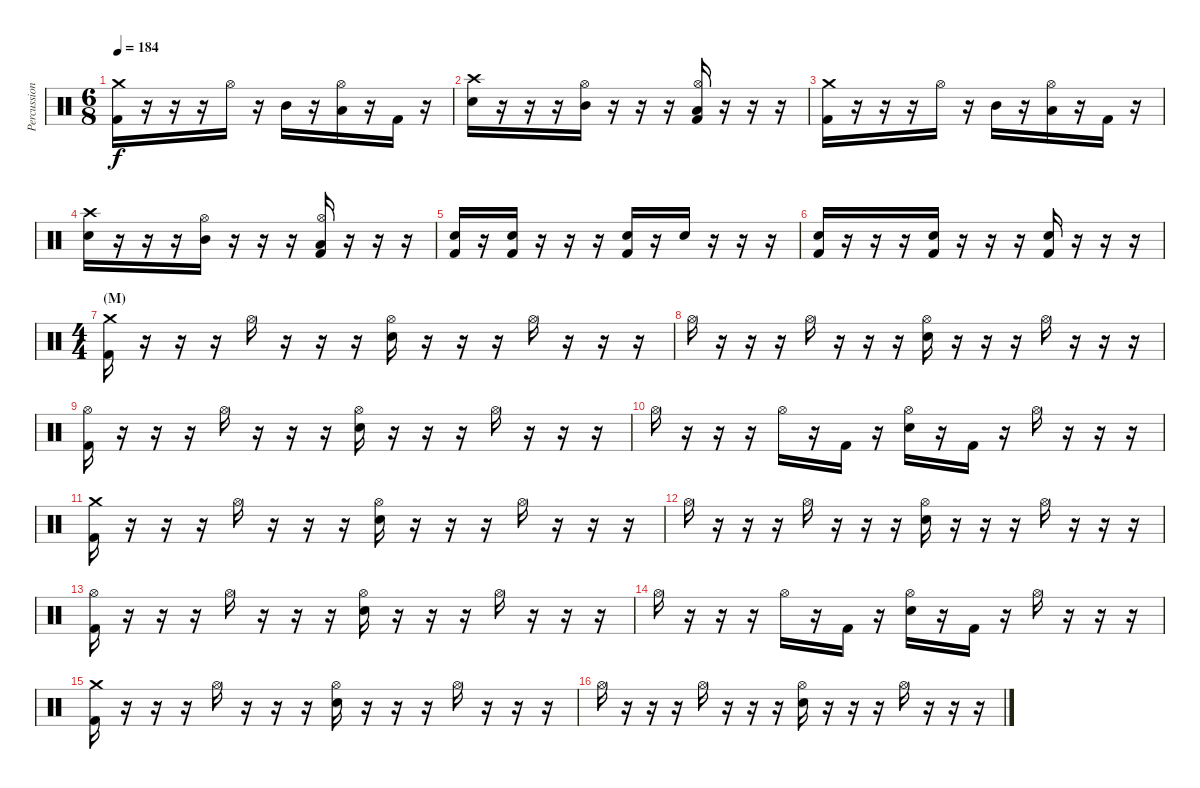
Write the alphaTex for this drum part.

\track ("Percussion" "Percussion") {instrument percussion}
\staff {score}
\articulation defaults
\ts (6 8)
\tempo 184
\clef neutral
\ks c
("Crash medium (hit)" "Kick (hit) 2").16{dy f} r.16 r.16 r.16 "Hi-Hat (open)".16 r.16 "Mid Tom (hit)".16 r.16 ("Hi-Hat (open)" "Low Tom (hit)").16 r.16 "Kick (hit) 2".16 r.16 |
("Crash high (hit)" "Electric Snare (hit)").16 r.16 r.16 r.16 ("Hi-Hat (open)" "Mid Tom (hit)").16 r.16 r.16 r.16 ("Hi-Hat (open)" "Low Tom (hit)" "Kick (hit) 2").16 r.16 r.16 r.16 |
("Crash medium (hit)" "Kick (hit) 2").16 r.16 r.16 r.16 "Hi-Hat (open)".16 r.16 "Mid Tom (hit)".16 r.16 ("Hi-Hat (open)" "Low Tom (hit)").16 r.16 "Kick (hit) 2".16 r.16 |
("Crash high (hit)" "Electric Snare (hit)").16 r.16 r.16 r.16 ("Hi-Hat (open)" "Mid Tom (hit)").16 r.16 r.16 r.16 ("Hi-Hat (open)" "Low Tom (hit)" "Kick (hit) 2").16 r.16 r.16 r.16 |
("Electric Snare (hit)" "Kick (hit) 2").16 r.16 ("Electric Snare (hit)" "Kick (hit) 2").16 r.16 r.16 r.16 ("Electric Snare (hit)" "Kick (hit) 2").16 r.16 "Electric Snare (hit)".16 r.16 r.16 r.16 |
("Electric Snare (hit)" "Kick (hit) 2").16 r.16 r.16 r.16 ("Electric Snare (hit)" "Kick (hit) 2").16 r.16 r.16 r.16 ("Electric Snare (hit)" "Kick (hit) 2").16 r.16 r.16 r.16 |
\ts (4 4)
\section ("" "(M)")
("Crash medium (hit)" "Kick (hit) 2").16 r.16 r.16 r.16 "Hi-Hat (open)".16 r.16 r.16 r.16 ("Hi-Hat (open)" "Electric Snare (hit)").16 r.16 r.16 r.16 "Hi-Hat (open)".16 r.16 r.16 r.16 |
"Hi-Hat (open)".16 r.16 r.16 r.16 "Hi-Hat (open)".16 r.16 r.16 r.16 ("Hi-Hat (open)" "Electric Snare (hit)").16 r.16 r.16 r.16 "Hi-Hat (open)".16 r.16 r.16 r.16 |
("Hi-Hat (open)" "Kick (hit) 2").16 r.16 r.16 r.16 "Hi-Hat (open)".16 r.16 r.16 r.16 ("Hi-Hat (open)" "Electric Snare (hit)").16 r.16 r.16 r.16 "Hi-Hat (open)".16 r.16 r.16 r.16 |
"Hi-Hat (open)".16 r.16 r.16 r.16 "Hi-Hat (open)".16 r.16 "Kick (hit) 2".16 r.16 ("Hi-Hat (open)" "Electric Snare (hit)").16 r.16 "Kick (hit) 2".16 r.16 "Hi-Hat (open)".16 r.16 r.16 r.16 |
("Crash medium (hit)" "Kick (hit) 2").16 r.16 r.16 r.16 "Hi-Hat (open)".16 r.16 r.16 r.16 ("Hi-Hat (open)" "Electric Snare (hit)").16 r.16 r.16 r.16 "Hi-Hat (open)".16 r.16 r.16 r.16 |
"Hi-Hat (open)".16 r.16 r.16 r.16 "Hi-Hat (open)".16 r.16 r.16 r.16 ("Hi-Hat (open)" "Electric Snare (hit)").16 r.16 r.16 r.16 "Hi-Hat (open)".16 r.16 r.16 r.16 |
("Hi-Hat (open)" "Kick (hit) 2").16 r.16 r.16 r.16 "Hi-Hat (open)".16 r.16 r.16 r.16 ("Hi-Hat (open)" "Electric Snare (hit)").16 r.16 r.16 r.16 "Hi-Hat (open)".16 r.16 r.16 r.16 |
"Hi-Hat (open)".16 r.16 r.16 r.16 "Hi-Hat (open)".16 r.16 "Kick (hit) 2".16 r.16 ("Hi-Hat (open)" "Electric Snare (hit)").16 r.16 "Kick (hit) 2".16 r.16 "Hi-Hat (open)".16 r.16 r.16 r.16 |
("Crash medium (hit)" "Kick (hit) 2").16 r.16 r.16 r.16 "Hi-Hat (open)".16 r.16 r.16 r.16 ("Hi-Hat (open)" "Electric Snare (hit)").16 r.16 r.16 r.16 "Hi-Hat (open)".16 r.16 r.16 r.16 |
"Hi-Hat (open)".16 r.16 r.16 r.16 "Hi-Hat (open)".16 r.16 r.16 r.16 ("Hi-Hat (open)" "Electric Snare (hit)").16 r.16 r.16 r.16 "Hi-Hat (open)".16 r.16 r.16 r.16
